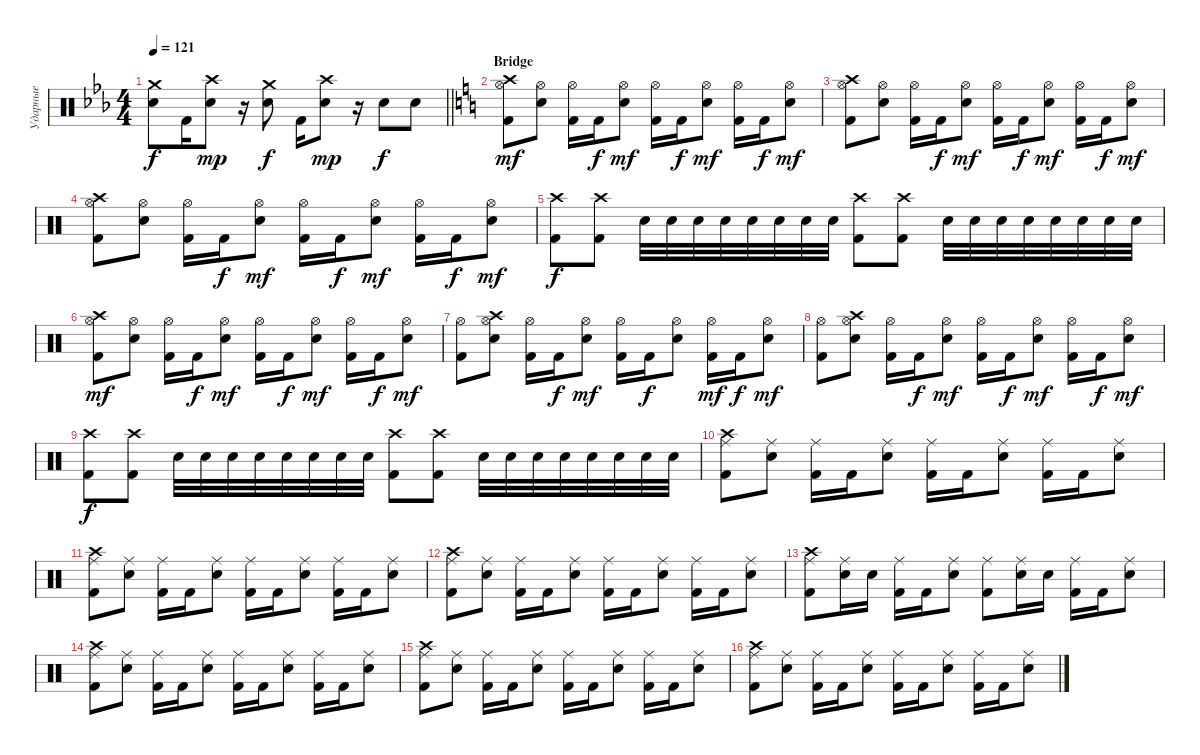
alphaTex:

\track ("Ударные" "Ударные") {instrument percussion}
\staff {score}
\articulation defaults
\ts (4 4)
\tempo 121
\clef neutral
\barLineRight lightlight
\ks eb
("Crash medium (hit)" "Electric Snare (hit)").8{dy f} "Kick (hit) 2".16 ("Crash high (hit)" "Electric Snare (hit)").8{dy mp} r.16 ("Crash medium (hit)" "Electric Snare (hit)").8{dy f} "Kick (hit) 2".16 ("Crash high (hit)" "Electric Snare (hit)").8{dy mp} r.16 "Electric Snare (hit)".8{dy f} "Electric Snare (hit)".8 |
\section ("" "Bridge")
\ks c
("Hi-Hat (open)" "Crash high (hit)" "Kick (hit) 2").8{dy mf} ("Hi-Hat (open)" "Electric Snare (hit)").8 ("Hi-Hat (open)" "Kick (hit) 2").16 "Kick (hit) 2".16{dy f} ("Hi-Hat (open)" "Electric Snare (hit)").8{dy mf} ("Hi-Hat (open)" "Kick (hit) 2").16 "Kick (hit) 2".16{dy f} ("Hi-Hat (open)" "Electric Snare (hit)").8{dy mf} ("Hi-Hat (open)" "Kick (hit) 2").16 "Kick (hit) 2".16{dy f} ("Hi-Hat (open)" "Electric Snare (hit)").8{dy mf} |
("Hi-Hat (open)" "Crash high (hit)" "Kick (hit) 2").8 ("Hi-Hat (open)" "Electric Snare (hit)").8 ("Hi-Hat (open)" "Kick (hit) 2").16 "Kick (hit) 2".16{dy f} ("Hi-Hat (open)" "Electric Snare (hit)").8{dy mf} ("Hi-Hat (open)" "Kick (hit) 2").16 "Kick (hit) 2".16{dy f} ("Hi-Hat (open)" "Electric Snare (hit)").8{dy mf} ("Hi-Hat (open)" "Kick (hit) 2").16 "Kick (hit) 2".16{dy f} ("Hi-Hat (open)" "Electric Snare (hit)").8{dy mf} |
("Hi-Hat (open)" "Crash high (hit)" "Kick (hit) 2").8 ("Hi-Hat (open)" "Electric Snare (hit)").8 ("Hi-Hat (open)" "Kick (hit) 2").16 "Kick (hit) 2".16{dy f} ("Hi-Hat (open)" "Electric Snare (hit)").8{dy mf} ("Hi-Hat (open)" "Kick (hit) 2").16 "Kick (hit) 2".16{dy f} ("Hi-Hat (open)" "Electric Snare (hit)").8{dy mf} ("Hi-Hat (open)" "Kick (hit) 2").16 "Kick (hit) 2".16{dy f} ("Hi-Hat (open)" "Electric Snare (hit)").8{dy mf} |
("Crash high (hit)" "Kick (hit) 2").8{dy f} ("Crash high (hit)" "Kick (hit) 2").8 "Electric Snare (hit)".32 "Electric Snare (hit)".32 "Electric Snare (hit)".32 "Electric Snare (hit)".32 "Electric Snare (hit)".32 "Electric Snare (hit)".32 "Electric Snare (hit)".32 "Electric Snare (hit)".32 ("Crash high (hit)" "Kick (hit) 2").8 ("Crash high (hit)" "Kick (hit) 2").8 "Electric Snare (hit)".32 "Electric Snare (hit)".32 "Electric Snare (hit)".32 "Electric Snare (hit)".32 "Electric Snare (hit)".32 "Electric Snare (hit)".32 "Electric Snare (hit)".32 "Electric Snare (hit)".32 |
("Hi-Hat (open)" "Crash high (hit)" "Kick (hit) 2").8{dy mf} ("Hi-Hat (open)" "Electric Snare (hit)").8 ("Hi-Hat (open)" "Kick (hit) 2").16 "Kick (hit) 2".16{dy f} ("Hi-Hat (open)" "Electric Snare (hit)").8{dy mf} ("Hi-Hat (open)" "Kick (hit) 2").16 "Kick (hit) 2".16{dy f} ("Hi-Hat (open)" "Electric Snare (hit)").8{dy mf} ("Hi-Hat (open)" "Kick (hit) 2").16 "Kick (hit) 2".16{dy f} ("Hi-Hat (open)" "Electric Snare (hit)").8{dy mf} |
("Hi-Hat (open)" "Kick (hit) 2").8 ("Hi-Hat (open)" "Crash high (hit)" "Electric Snare (hit)").8 ("Hi-Hat (open)" "Kick (hit) 2").16 "Kick (hit) 2".16{dy f} ("Hi-Hat (open)" "Electric Snare (hit)").8{dy mf} ("Hi-Hat (open)" "Kick (hit) 2").16 "Kick (hit) 2".16{dy f} ("Hi-Hat (open)" "Electric Snare (hit)").8 ("Hi-Hat (open)" "Kick (hit) 2").16{dy mf} "Kick (hit) 2".16{dy f} ("Hi-Hat (open)" "Electric Snare (hit)").8{dy mf} |
("Hi-Hat (open)" "Kick (hit) 2").8 ("Hi-Hat (open)" "Crash high (hit)" "Electric Snare (hit)").8 ("Hi-Hat (open)" "Kick (hit) 2").16 "Kick (hit) 2".16{dy f} ("Hi-Hat (open)" "Electric Snare (hit)").8{dy mf} ("Hi-Hat (open)" "Kick (hit) 2").16 "Kick (hit) 2".16{dy f} ("Hi-Hat (open)" "Electric Snare (hit)").8{dy mf} ("Hi-Hat (open)" "Kick (hit) 2").16 "Kick (hit) 2".16{dy f} ("Hi-Hat (open)" "Electric Snare (hit)").8{dy mf} |
("Crash high (hit)" "Kick (hit) 2").8{dy f} ("Crash high (hit)" "Kick (hit) 2").8 "Electric Snare (hit)".32 "Electric Snare (hit)".32 "Electric Snare (hit)".32 "Electric Snare (hit)".32 "Electric Snare (hit)".32 "Electric Snare (hit)".32 "Electric Snare (hit)".32 "Electric Snare (hit)".32 ("Crash high (hit)" "Kick (hit) 2").8 ("Crash high (hit)" "Kick (hit) 2").8 "Electric Snare (hit)".32 "Electric Snare (hit)".32 "Electric Snare (hit)".32 "Electric Snare (hit)".32 "Electric Snare (hit)".32 "Electric Snare (hit)".32 "Electric Snare (hit)".32 "Electric Snare (hit)".32 |
("Ride (middle)" "Crash high (hit)" "Kick (hit) 2").8 ("Ride (middle)" "Electric Snare (hit)").8 ("Ride (middle)" "Kick (hit) 2").16 "Kick (hit) 2".16 ("Ride (middle)" "Electric Snare (hit)").8 ("Ride (middle)" "Kick (hit) 2").16 "Kick (hit) 2".16 ("Ride (middle)" "Electric Snare (hit)").8 ("Ride (middle)" "Kick (hit) 2").16 "Kick (hit) 2".16 ("Ride (middle)" "Electric Snare (hit)").8 |
("Ride (middle)" "Crash high (hit)" "Kick (hit) 2").8 ("Ride (middle)" "Electric Snare (hit)").8 ("Ride (middle)" "Kick (hit) 2").16 "Kick (hit) 2".16 ("Ride (middle)" "Electric Snare (hit)").8 ("Ride (middle)" "Kick (hit) 2").16 "Kick (hit) 2".16 ("Ride (middle)" "Electric Snare (hit)").8 ("Ride (middle)" "Kick (hit) 2").16 "Kick (hit) 2".16 ("Ride (middle)" "Electric Snare (hit)").8 |
("Ride (middle)" "Crash high (hit)" "Kick (hit) 2").8 ("Ride (middle)" "Electric Snare (hit)").8 ("Ride (middle)" "Kick (hit) 2").16 "Kick (hit) 2".16 ("Ride (middle)" "Electric Snare (hit)").8 ("Ride (middle)" "Kick (hit) 2").16 "Kick (hit) 2".16 ("Ride (middle)" "Electric Snare (hit)").8 ("Ride (middle)" "Kick (hit) 2").16 "Kick (hit) 2".16 ("Ride (middle)" "Electric Snare (hit)").8 |
("Ride (middle)" "Crash high (hit)" "Kick (hit) 2").8 ("Ride (middle)" "Electric Snare (hit)").16 "Electric Snare (hit)".16 ("Ride (middle)" "Kick (hit) 2").16 "Kick (hit) 2".16 ("Ride (middle)" "Electric Snare (hit)").8 ("Ride (middle)" "Kick (hit) 2").8 ("Ride (middle)" "Electric Snare (hit)").16 "Electric Snare (hit)".16 ("Ride (middle)" "Kick (hit) 2").16 "Kick (hit) 2".16 ("Ride (middle)" "Electric Snare (hit)").8 |
("Ride (middle)" "Crash high (hit)" "Kick (hit) 2").8 ("Ride (middle)" "Electric Snare (hit)").8 ("Ride (middle)" "Kick (hit) 2").16 "Kick (hit) 2".16 ("Ride (middle)" "Electric Snare (hit)").8 ("Ride (middle)" "Kick (hit) 2").16 "Kick (hit) 2".16 ("Ride (middle)" "Electric Snare (hit)").8 ("Ride (middle)" "Kick (hit) 2").16 "Kick (hit) 2".16 ("Ride (middle)" "Electric Snare (hit)").8 |
("Ride (middle)" "Crash high (hit)" "Kick (hit) 2").8 ("Ride (middle)" "Electric Snare (hit)").8 ("Ride (middle)" "Kick (hit) 2").16 "Kick (hit) 2".16 ("Ride (middle)" "Electric Snare (hit)").8 ("Ride (middle)" "Kick (hit) 2").16 "Kick (hit) 2".16 ("Ride (middle)" "Electric Snare (hit)").8 ("Ride (middle)" "Kick (hit) 2").16 "Kick (hit) 2".16 ("Ride (middle)" "Electric Snare (hit)").8 |
("Ride (middle)" "Crash high (hit)" "Kick (hit) 2").8 ("Ride (middle)" "Electric Snare (hit)").8 ("Ride (middle)" "Kick (hit) 2").16 "Kick (hit) 2".16 ("Ride (middle)" "Electric Snare (hit)").8 ("Ride (middle)" "Kick (hit) 2").16 "Kick (hit) 2".16 ("Ride (middle)" "Electric Snare (hit)").8 ("Ride (middle)" "Kick (hit) 2").16 "Kick (hit) 2".16 ("Ride (middle)" "Electric Snare (hit)").8
